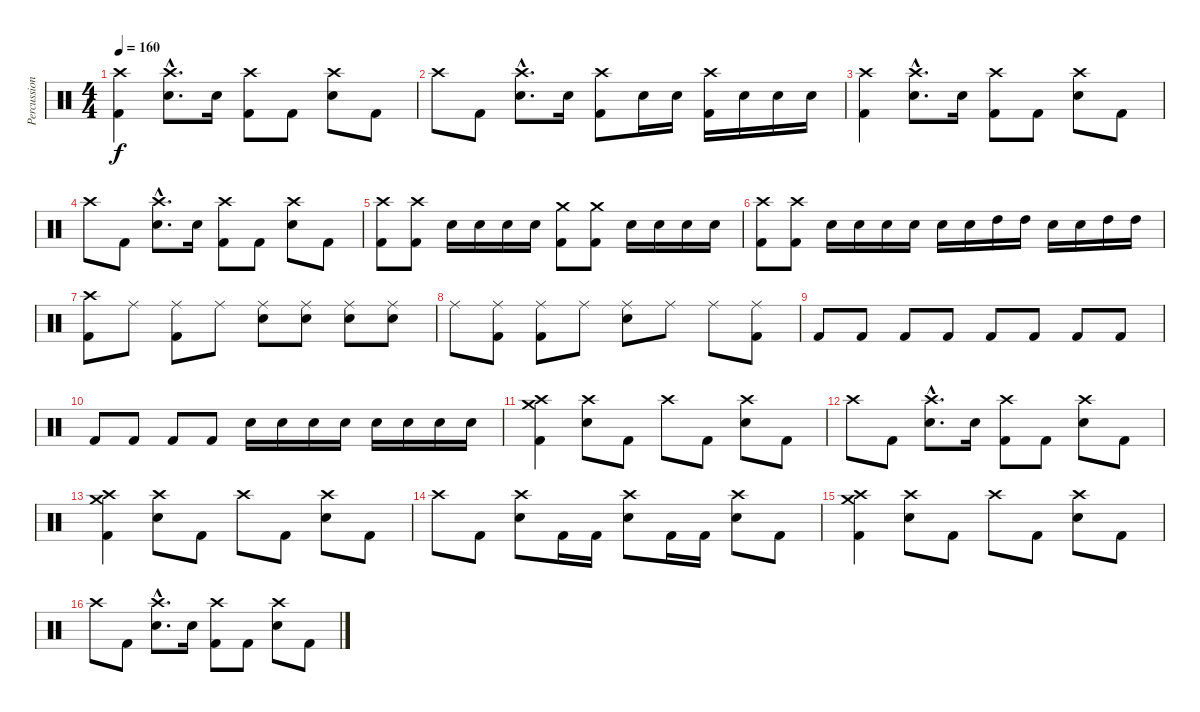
\track ("Percussion" "Percussion") {instrument percussion}
\staff {score}
\articulation defaults
\ts (4 4)
\tempo 160
\clef neutral
\ks c
("Crash high (hit)" "Kick (hit) 2").4{dy f} ("Crash high (hit)"{hac} "Electric Snare (hit)"{hac}).8{d} "Electric Snare (hit)".16 ("Crash high (hit)" "Kick (hit) 2").8 "Kick (hit) 2".8 ("Crash high (hit)" "Electric Snare (hit)").8 "Kick (hit) 2".8 |
"Crash high (hit)".8 "Kick (hit) 2".8 ("Crash high (hit)"{hac} "Electric Snare (hit)"{hac}).8{d} "Electric Snare (hit)".16 ("Crash high (hit)" "Kick (hit) 2").8 "Electric Snare (hit)".16 "Electric Snare (hit)".16 ("Crash high (hit)" "Kick (hit) 2").16 "Electric Snare (hit)".16 "Electric Snare (hit)".16 "Electric Snare (hit)".16 |
("Crash high (hit)" "Kick (hit) 2").4 ("Crash high (hit)"{hac} "Electric Snare (hit)"{hac}).8{d} "Electric Snare (hit)".16 ("Crash high (hit)" "Kick (hit) 2").8 "Kick (hit) 2".8 ("Crash high (hit)" "Electric Snare (hit)").8 "Kick (hit) 2".8 |
"Crash high (hit)".8 "Kick (hit) 2".8 ("Crash high (hit)"{hac} "Electric Snare (hit)"{hac}).8{d} "Electric Snare (hit)".16 ("Crash high (hit)" "Kick (hit) 2").8 "Kick (hit) 2".8 ("Crash high (hit)" "Electric Snare (hit)").8 "Kick (hit) 2".8 |
("Crash high (hit)" "Kick (hit) 2").8 ("Crash high (hit)" "Kick (hit) 2").8 "Electric Snare (hit)".16 "Electric Snare (hit)".16 "Electric Snare (hit)".16 "Electric Snare (hit)".16 ("Crash medium (hit)" "Kick (hit) 2").8 ("Crash medium (hit)" "Kick (hit) 2").8 "Electric Snare (hit)".16 "Electric Snare (hit)".16 "Electric Snare (hit)".16 "Electric Snare (hit)".16 |
("Crash high (hit)" "Kick (hit) 2").8 ("Crash high (hit)" "Kick (hit) 2").8 "Electric Snare (hit)".16 "Electric Snare (hit)".16 "Electric Snare (hit)".16 "Electric Snare (hit)".16 "Electric Snare (hit)".16 "Electric Snare (hit)".16 "High Tom (hit)".16 "High Tom (hit)".16 "Electric Snare (hit)".16 "Electric Snare (hit)".16 "High Tom (hit)".16 "High Tom (hit)".16 |
("Crash high (hit)" "Kick (hit) 2").8 "Ride (middle)".8 ("Ride (middle)" "Kick (hit) 2").8 "Ride (middle)".8 ("Ride (middle)" "Electric Snare (hit)").8 ("Ride (middle)" "Electric Snare (hit)").8 ("Ride (middle)" "Electric Snare (hit)").8 ("Ride (middle)" "Electric Snare (hit)").8 |
"Ride (middle)".8 ("Ride (middle)" "Kick (hit) 2").8 ("Ride (middle)" "Kick (hit) 2").8 "Ride (middle)".8 ("Ride (middle)" "Electric Snare (hit)").8 "Ride (middle)".8 "Ride (middle)".8 ("Ride (middle)" "Kick (hit) 2").8 |
"Kick (hit) 2".8 "Kick (hit) 2".8 "Kick (hit) 2".8 "Kick (hit) 2".8 "Kick (hit) 2".8 "Kick (hit) 2".8 "Kick (hit) 2".8 "Kick (hit) 2".8 |
"Kick (hit) 2".8 "Kick (hit) 2".8 "Kick (hit) 2".8 "Kick (hit) 2".8 "Electric Snare (hit)".16 "Electric Snare (hit)".16 "Electric Snare (hit)".16 "Electric Snare (hit)".16 "Electric Snare (hit)".16 "Electric Snare (hit)".16 "Electric Snare (hit)".16 "Electric Snare (hit)".16 |
("Crash high (hit)" "Crash medium (hit)" "Kick (hit) 2").4 ("Crash high (hit)" "Electric Snare (hit)").8 "Kick (hit) 2".8 "Crash high (hit)".8 "Kick (hit) 2".8 ("Crash high (hit)" "Electric Snare (hit)").8 "Kick (hit) 2".8 |
"Crash high (hit)".8 "Kick (hit) 2".8 ("Crash high (hit)"{hac} "Electric Snare (hit)"{hac}).8{d} "Electric Snare (hit)".16 ("Crash high (hit)" "Kick (hit) 2").8 "Kick (hit) 2".8 ("Crash high (hit)" "Electric Snare (hit)").8 "Kick (hit) 2".8 |
("Crash high (hit)" "Crash medium (hit)" "Kick (hit) 2").4 ("Crash high (hit)" "Electric Snare (hit)").8 "Kick (hit) 2".8 "Crash high (hit)".8 "Kick (hit) 2".8 ("Crash high (hit)" "Electric Snare (hit)").8 "Kick (hit) 2".8 |
"Crash high (hit)".8 "Kick (hit) 2".8 ("Crash high (hit)" "Electric Snare (hit)").8 "Kick (hit) 2".16 "Kick (hit) 2".16 ("Crash high (hit)" "Electric Snare (hit)").8 "Kick (hit) 2".16 "Kick (hit) 2".16 ("Crash high (hit)" "Electric Snare (hit)").8 "Kick (hit) 2".8 |
("Crash high (hit)" "Crash medium (hit)" "Kick (hit) 2").4 ("Crash high (hit)" "Electric Snare (hit)").8 "Kick (hit) 2".8 "Crash high (hit)".8 "Kick (hit) 2".8 ("Crash high (hit)" "Electric Snare (hit)").8 "Kick (hit) 2".8 |
"Crash high (hit)".8 "Kick (hit) 2".8 ("Crash high (hit)"{hac} "Electric Snare (hit)"{hac}).8{d} "Electric Snare (hit)".16 ("Crash high (hit)" "Kick (hit) 2").8 "Kick (hit) 2".8 ("Crash high (hit)" "Electric Snare (hit)").8 "Kick (hit) 2".8
